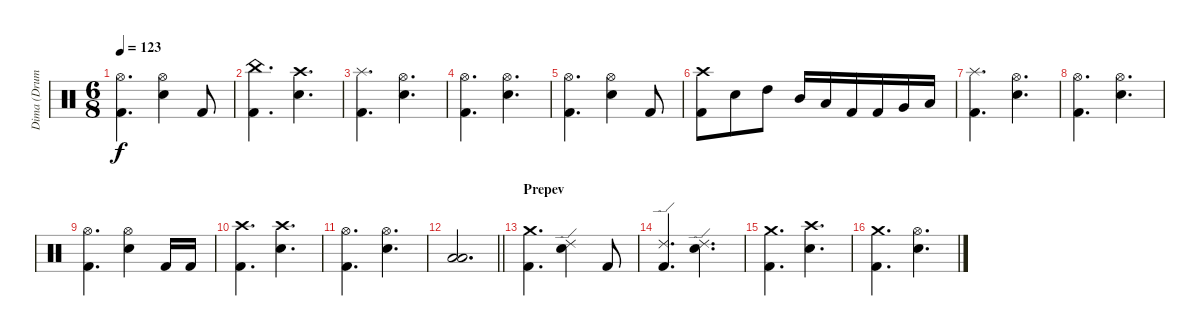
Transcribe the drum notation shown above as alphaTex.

\track ("Dima (Drums)" "Dima (Drum") {instrument percussion}
\staff {score}
\articulation defaults
\ts (6 8)
\tempo 123
\clef neutral
\ks c
("Hi-Hat (open)" "Kick (hit) 2").4{d dy f} ("Hi-Hat (open)" "Snare (hit) 2").4 "Kick (hit) 2".8 |
("China (hit)" "Kick (hit) 2").4{d} ("Crash high (hit)" "Snare (hit) 2").4{d} |
("Splash (hit)" "Kick (hit) 2").4{d} ("Hi-Hat (open)" "Snare (hit) 2").4{d} |
("Hi-Hat (open)" "Kick (hit) 2").4{d} ("Hi-Hat (open)" "Snare (hit) 2").4{d} |
("Hi-Hat (open)" "Kick (hit) 2").4{d} ("Hi-Hat (open)" "Snare (hit) 2").4 "Kick (hit) 2".8 |
("Crash high (hit)" "Kick (hit) 2").8 "Snare (hit) 2".8 "High Tom (hit)".8 "Mid Tom (hit)".16 "Low Tom (hit)".16 "Kick (hit) 2".16 "Kick (hit) 2".16 "Very Low Tom (hit)".16 "Low Tom (hit)".16 |
("Splash (hit)" "Kick (hit) 2").4{d} ("Hi-Hat (open)" "Snare (hit) 2").4{d} |
("Hi-Hat (open)" "Kick (hit) 2").4{d} ("Hi-Hat (open)" "Snare (hit) 2").4{d} |
("Hi-Hat (open)" "Kick (hit) 2").4{d} ("Hi-Hat (open)" "Snare (hit) 2").4 "Kick (hit) 2".16 "Kick (hit) 2".16 |
("Crash high (hit)" "Kick (hit) 2").4{d} ("Crash high (hit)" "Snare (hit) 2").4{d} |
("Hi-Hat (open)" "Kick (hit) 2").4{d} ("Hi-Hat (open)" "Snare (hit) 2").4{d} |
\barLineRight lightlight
("Low Tom (hit)" "Low Floor Tom (hit)").2{d} |
\section ("" "Prepev")
("Crash medium (hit)" "Kick (hit) 2").4{d} ("Ride (edge) 2" "Snare (hit) 2").4 "Kick (hit) 2".8 |
("Ride (edge) 2" "Kick (hit) 2").4{d} ("Ride (edge) 2" "Snare (hit) 2").4{d} |
("Crash medium (hit)" "Kick (hit) 2").4{d} ("Crash high (hit)" "Snare (hit) 2").4{d} |
("Crash medium (hit)" "Kick (hit) 2").4{d} ("Hi-Hat (open)" "Snare (hit) 2").4{d}
